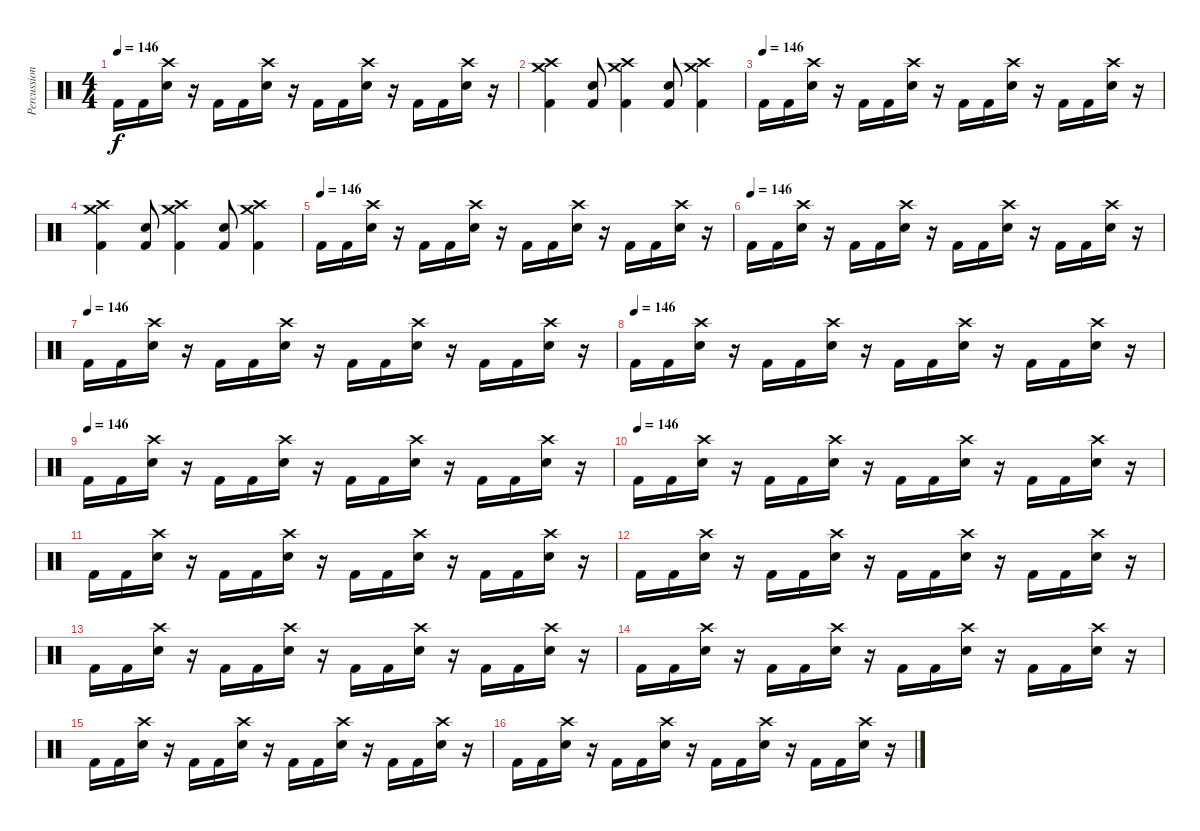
\track ("Percussion(Dr.Spock)" "Percussion") {instrument percussion}
\staff {score}
\articulation defaults
\ts (4 4)
\tempo 146
\clef neutral
\ks c "Kick (hit) 2".16{dy f} "Kick (hit) 2".16
("Snare (hit) 2" "Crash high (hit)").16 r.16 "Kick (hit) 2".16 "Kick (hit) 2".16 ("Snare (hit) 2" "Crash high (hit)").16 r.16 "Kick (hit) 2".16 "Kick (hit) 2".16 ("Snare (hit) 2" "Crash high (hit)").16 r.16 "Kick (hit) 2".16 "Kick (hit) 2".16 ("Snare (hit) 2" "Crash high (hit)").16 r.16 |
("Crash medium (hit)" "Crash high (hit)" "Kick (hit) 2").4 ("Snare (hit) 2" "Kick (hit) 2").8 ("Crash medium (hit)" "Crash high (hit)" "Kick (hit) 2").4 ("Snare (hit) 2" "Kick (hit) 2").8 ("Crash medium (hit)" "Crash high (hit)" "Kick (hit) 2").4 |
\tempo (146)
"Kick (hit) 2".16 "Kick (hit) 2".16 ("Snare (hit) 2" "Crash high (hit)").16 r.16 "Kick (hit) 2".16 "Kick (hit) 2".16 ("Snare (hit) 2" "Crash high (hit)").16 r.16 "Kick (hit) 2".16 "Kick (hit) 2".16 ("Snare (hit) 2" "Crash high (hit)").16 r.16 "Kick (hit) 2".16 "Kick (hit) 2".16 ("Snare (hit) 2" "Crash high (hit)").16 r.16 |
("Crash medium (hit)" "Crash high (hit)" "Kick (hit) 2").4 ("Snare (hit) 2" "Kick (hit) 2").8 ("Crash medium (hit)" "Crash high (hit)" "Kick (hit) 2").4 ("Snare (hit) 2" "Kick (hit) 2").8 ("Crash medium (hit)" "Crash high (hit)" "Kick (hit) 2").4 |
\tempo (146)
"Kick (hit) 2".16 "Kick (hit) 2".16 ("Snare (hit) 2" "Crash high (hit)").16 r.16 "Kick (hit) 2".16 "Kick (hit) 2".16 ("Snare (hit) 2" "Crash high (hit)").16 r.16 "Kick (hit) 2".16 "Kick (hit) 2".16 ("Snare (hit) 2" "Crash high (hit)").16 r.16 "Kick (hit) 2".16 "Kick (hit) 2".16 ("Snare (hit) 2" "Crash high (hit)").16 r.16 |
\tempo (146)
"Kick (hit) 2".16 "Kick (hit) 2".16 ("Snare (hit) 2" "Crash high (hit)").16 r.16 "Kick (hit) 2".16 "Kick (hit) 2".16 ("Snare (hit) 2" "Crash high (hit)").16 r.16 "Kick (hit) 2".16 "Kick (hit) 2".16 ("Snare (hit) 2" "Crash high (hit)").16 r.16 "Kick (hit) 2".16 "Kick (hit) 2".16 ("Snare (hit) 2" "Crash high (hit)").16 r.16 |
\tempo (146)
"Kick (hit) 2".16 "Kick (hit) 2".16 ("Snare (hit) 2" "Crash high (hit)").16 r.16 "Kick (hit) 2".16 "Kick (hit) 2".16 ("Snare (hit) 2" "Crash high (hit)").16 r.16 "Kick (hit) 2".16 "Kick (hit) 2".16 ("Snare (hit) 2" "Crash high (hit)").16 r.16 "Kick (hit) 2".16 "Kick (hit) 2".16 ("Snare (hit) 2" "Crash high (hit)").16 r.16 |
\tempo (146)
"Kick (hit) 2".16 "Kick (hit) 2".16 ("Snare (hit) 2" "Crash high (hit)").16 r.16 "Kick (hit) 2".16 "Kick (hit) 2".16 ("Snare (hit) 2" "Crash high (hit)").16 r.16 "Kick (hit) 2".16 "Kick (hit) 2".16 ("Snare (hit) 2" "Crash high (hit)").16 r.16 "Kick (hit) 2".16 "Kick (hit) 2".16 ("Snare (hit) 2" "Crash high (hit)").16 r.16 |
\tempo (146)
"Kick (hit) 2".16 "Kick (hit) 2".16 ("Snare (hit) 2" "Crash high (hit)").16 r.16 "Kick (hit) 2".16 "Kick (hit) 2".16 ("Snare (hit) 2" "Crash high (hit)").16 r.16 "Kick (hit) 2".16 "Kick (hit) 2".16 ("Snare (hit) 2" "Crash high (hit)").16 r.16 "Kick (hit) 2".16 "Kick (hit) 2".16 ("Snare (hit) 2" "Crash high (hit)").16 r.16 |
\tempo (146)
"Kick (hit) 2".16 "Kick (hit) 2".16 ("Snare (hit) 2" "Crash high (hit)").16 r.16 "Kick (hit) 2".16 "Kick (hit) 2".16 ("Snare (hit) 2" "Crash high (hit)").16 r.16 "Kick (hit) 2".16 "Kick (hit) 2".16 ("Snare (hit) 2" "Crash high (hit)").16 r.16 "Kick (hit) 2".16 "Kick (hit) 2".16 ("Snare (hit) 2" "Crash high (hit)").16 r.16 |
"Kick (hit) 2".16 "Kick (hit) 2".16 ("Snare (hit) 2" "Crash high (hit)").16 r.16 "Kick (hit) 2".16 "Kick (hit) 2".16 ("Snare (hit) 2" "Crash high (hit)").16 r.16 "Kick (hit) 2".16 "Kick (hit) 2".16 ("Snare (hit) 2" "Crash high (hit)").16 r.16 "Kick (hit) 2".16 "Kick (hit) 2".16 ("Snare (hit) 2" "Crash high (hit)").16 r.16 |
"Kick (hit) 2".16 "Kick (hit) 2".16 ("Snare (hit) 2" "Crash high (hit)").16 r.16 "Kick (hit) 2".16 "Kick (hit) 2".16 ("Snare (hit) 2" "Crash high (hit)").16 r.16 "Kick (hit) 2".16 "Kick (hit) 2".16 ("Snare (hit) 2" "Crash high (hit)").16 r.16 "Kick (hit) 2".16 "Kick (hit) 2".16 ("Snare (hit) 2" "Crash high (hit)").16 r.16 |
"Kick (hit) 2".16 "Kick (hit) 2".16 ("Snare (hit) 2" "Crash high (hit)").16 r.16 "Kick (hit) 2".16 "Kick (hit) 2".16 ("Snare (hit) 2" "Crash high (hit)").16 r.16 "Kick (hit) 2".16 "Kick (hit) 2".16 ("Snare (hit) 2" "Crash high (hit)").16 r.16 "Kick (hit) 2".16 "Kick (hit) 2".16 ("Snare (hit) 2" "Crash high (hit)").16 r.16 |
"Kick (hit) 2".16 "Kick (hit) 2".16 ("Snare (hit) 2" "Crash high (hit)").16 r.16 "Kick (hit) 2".16 "Kick (hit) 2".16 ("Snare (hit) 2" "Crash high (hit)").16 r.16 "Kick (hit) 2".16 "Kick (hit) 2".16 ("Snare (hit) 2" "Crash high (hit)").16 r.16 "Kick (hit) 2".16 "Kick (hit) 2".16 ("Snare (hit) 2" "Crash high (hit)").16 r.16 |
"Kick (hit) 2".16 "Kick (hit) 2".16 ("Snare (hit) 2" "Crash high (hit)").16 r.16 "Kick (hit) 2".16 "Kick (hit) 2".16 ("Snare (hit) 2" "Crash high (hit)").16 r.16 "Kick (hit) 2".16 "Kick (hit) 2".16 ("Snare (hit) 2" "Crash high (hit)").16 r.16 "Kick (hit) 2".16 "Kick (hit) 2".16 ("Snare (hit) 2" "Crash high (hit)").16 r.16 |
"Kick (hit) 2".16 "Kick (hit) 2".16 ("Snare (hit) 2" "Crash high (hit)").16 r.16 "Kick (hit) 2".16 "Kick (hit) 2".16 ("Snare (hit) 2" "Crash high (hit)").16 r.16 "Kick (hit) 2".16 "Kick (hit) 2".16 ("Snare (hit) 2" "Crash high (hit)").16 r.16 "Kick (hit) 2".16 "Kick (hit) 2".16 ("Snare (hit) 2" "Crash high (hit)").16 r.16
